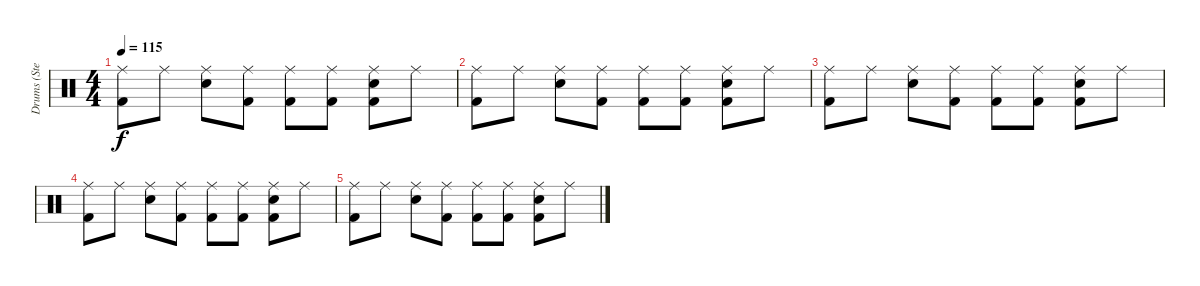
\track ("Drums (Stewart)           " "Drums (Ste") {instrument percussion}
\staff {score}
\articulation defaults
\ts (4 4)
\tempo 115
\clef neutral
\ks c
("Ride (middle)" "Kick (hit) 2").8{dy f volume 2} "Ride (middle)".8 ("Ride (middle)" "Snare (hit) 2").8 ("Ride (middle)" "Kick (hit) 2").8 ("Ride (middle)" "Kick (hit) 2").8 ("Ride (middle)" "Kick (hit) 2").8 ("Ride (middle)" "Kick (hit) 2" "Snare (hit) 2").8 "Ride (middle)".8 |
("Ride (middle)" "Kick (hit) 2").8 "Ride (middle)".8 ("Ride (middle)" "Snare (hit) 2").8 ("Ride (middle)" "Kick (hit) 2").8 ("Ride (middle)" "Kick (hit) 2").8 ("Ride (middle)" "Kick (hit) 2").8 ("Ride (middle)" "Kick (hit) 2" "Snare (hit) 2").8 "Ride (middle)".8 |
("Ride (middle)" "Kick (hit) 2").8 "Ride (middle)".8 ("Ride (middle)" "Snare (hit) 2").8 ("Ride (middle)" "Kick (hit) 2").8 ("Ride (middle)" "Kick (hit) 2").8 ("Ride (middle)" "Kick (hit) 2").8 ("Ride (middle)" "Kick (hit) 2" "Snare (hit) 2").8 "Ride (middle)".8 |
("Ride (middle)" "Kick (hit) 2").8 "Ride (middle)".8 ("Ride (middle)" "Snare (hit) 2").8 ("Ride (middle)" "Kick (hit) 2").8 ("Ride (middle)" "Kick (hit) 2").8 ("Ride (middle)" "Kick (hit) 2").8 ("Ride (middle)" "Kick (hit) 2" "Snare (hit) 2").8 "Ride (middle)".8 |
("Ride (middle)" "Kick (hit) 2").8 "Ride (middle)".8 ("Ride (middle)" "Snare (hit) 2").8 ("Ride (middle)" "Kick (hit) 2").8 ("Ride (middle)" "Kick (hit) 2").8 ("Ride (middle)" "Kick (hit) 2").8 ("Ride (middle)" "Kick (hit) 2" "Snare (hit) 2").8 "Ride (middle)".8
